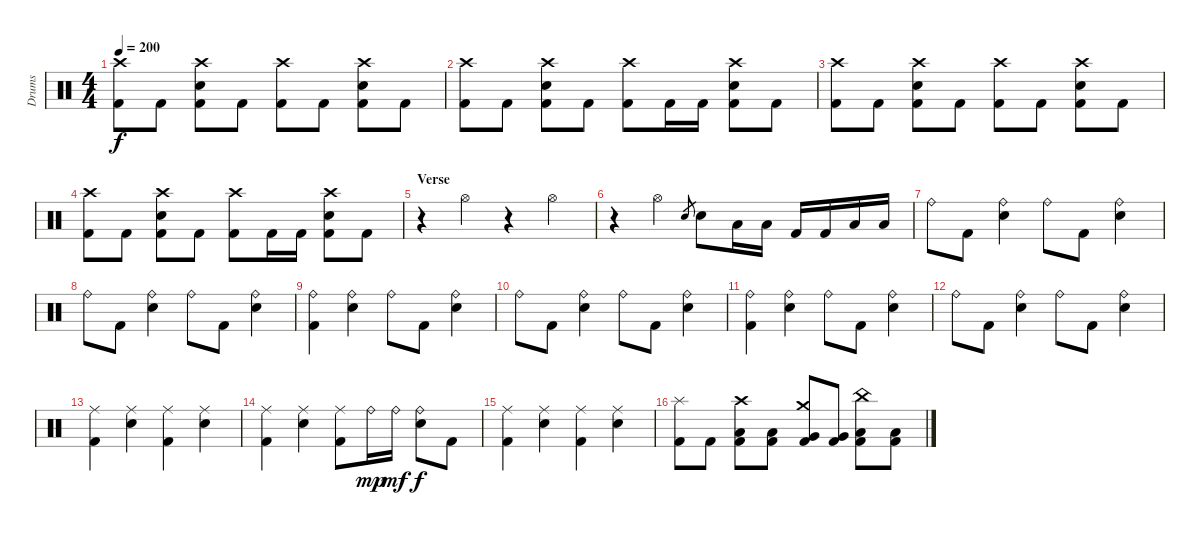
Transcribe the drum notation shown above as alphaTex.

\track ("Drums" "Drums") {instrument percussion}
\staff {score}
\articulation defaults
\ts (4 4)
\tempo 200
\clef neutral
\ks c
("Crash high (hit)" "Kick (hit) 2").8{dy f} "Kick (hit) 2".8 ("Crash high (hit)" "Electric Snare (hit)" "Kick (hit) 2").8 "Kick (hit) 2".8 ("Crash high (hit)" "Kick (hit) 2").8 "Kick (hit) 2".8 ("Crash high (hit)" "Electric Snare (hit)" "Kick (hit) 2").8 "Kick (hit) 2".8 |
("Crash high (hit)" "Kick (hit) 2").8 "Kick (hit) 2".8 ("Crash high (hit)" "Electric Snare (hit)" "Kick (hit) 2").8 "Kick (hit) 2".8 ("Crash high (hit)" "Kick (hit) 2").8 "Kick (hit) 2".16 "Kick (hit) 2".16 ("Crash high (hit)" "Electric Snare (hit)" "Kick (hit) 2").8 "Kick (hit) 2".8 |
("Crash high (hit)" "Kick (hit) 2").8 "Kick (hit) 2".8 ("Crash high (hit)" "Electric Snare (hit)" "Kick (hit) 2").8 "Kick (hit) 2".8 ("Crash high (hit)" "Kick (hit) 2").8 "Kick (hit) 2".8 ("Crash high (hit)" "Electric Snare (hit)" "Kick (hit) 2").8 "Kick (hit) 2".8 |
("Crash high (hit)" "Kick (hit) 2").8 "Kick (hit) 2".8 ("Crash high (hit)" "Electric Snare (hit)" "Kick (hit) 2").8 "Kick (hit) 2".8 ("Crash high (hit)" "Kick (hit) 2").8 "Kick (hit) 2".16 "Kick (hit) 2".16 ("Crash high (hit)" "Electric Snare (hit)" "Kick (hit) 2").8 "Kick (hit) 2".8 |
\section ("" "Verse")
r.4 "Hi-Hat (open)".4 r.4 "Hi-Hat (open)".4 |
r.4 "Hi-Hat (open)".4 "Electric Snare (hit)".8{gr} "Electric Snare (hit)".8 "Low Tom (hit)".16 "Low Tom (hit)".16 "Kick (hit) 2".16 "Kick (hit) 2".16 "Low Floor Tom (hit)".16 "Low Floor Tom (hit)".16 |
"Ride (bell)".8 "Kick (hit) 2".8 ("Ride (bell)" "Electric Snare (hit)").4 "Ride (bell)".8 "Kick (hit) 2".8 ("Ride (bell)" "Electric Snare (hit)").4 |
"Ride (bell)".8 "Kick (hit) 2".8 ("Ride (bell)" "Electric Snare (hit)").4 "Ride (bell)".8 "Kick (hit) 2".8 ("Ride (bell)" "Electric Snare (hit)").4 |
("Ride (bell)" "Kick (hit) 2").4 ("Ride (bell)" "Electric Snare (hit)").4 "Ride (bell)".8 "Kick (hit) 2".8 ("Ride (bell)" "Electric Snare (hit)").4 |
"Ride (bell)".8 "Kick (hit) 2".8 ("Ride (bell)" "Electric Snare (hit)").4 "Ride (bell)".8 "Kick (hit) 2".8 ("Ride (bell)" "Electric Snare (hit)").4 |
("Ride (bell)" "Kick (hit) 2").4 ("Ride (bell)" "Electric Snare (hit)").4 "Ride (bell)".8 "Kick (hit) 2".8 ("Ride (bell)" "Electric Snare (hit)").4 |
"Ride (bell)".8 "Kick (hit) 2".8 ("Ride (bell)" "Electric Snare (hit)").4 "Ride (bell)".8 "Kick (hit) 2".8 ("Ride (bell)" "Electric Snare (hit)").4 |
("Ride (middle)" "Kick (hit) 2").4 ("Ride (middle)" "Electric Snare (hit)").4 ("Ride (middle)" "Kick (hit) 2").4 ("Ride (middle)" "Electric Snare (hit)").4 |
("Ride (middle)" "Kick (hit) 2").4 ("Ride (middle)" "Electric Snare (hit)").4 ("Ride (middle)" "Kick (hit) 2").8 "Ride (bell)".16{dy mp} "Ride (bell)".16{dy mf} ("Ride (bell)" "Electric Snare (hit)").8{dy f} "Kick (hit) 2".8 |
("Ride (middle)" "Kick (hit) 2").4 ("Ride (middle)" "Electric Snare (hit)").4 ("Ride (middle)" "Kick (hit) 2").4 ("Ride (middle)" "Electric Snare (hit)").4 |
("Splash (hit)" "Kick (hit) 2").8 "Kick (hit) 2".8 ("Crash high (hit)" "Low Tom (hit)" "Kick (hit) 2").8 ("Low Tom (hit)" "Kick (hit) 2").8 ("Crash medium (hit)" "Very Low Tom (hit)" "Kick (hit) 2").8 ("Very Low Tom (hit)" "Kick (hit) 2").8 ("China (hit)" "Low Floor Tom (hit)" "Kick (hit) 2").8 ("Low Floor Tom (hit)" "Kick (hit) 2").8
